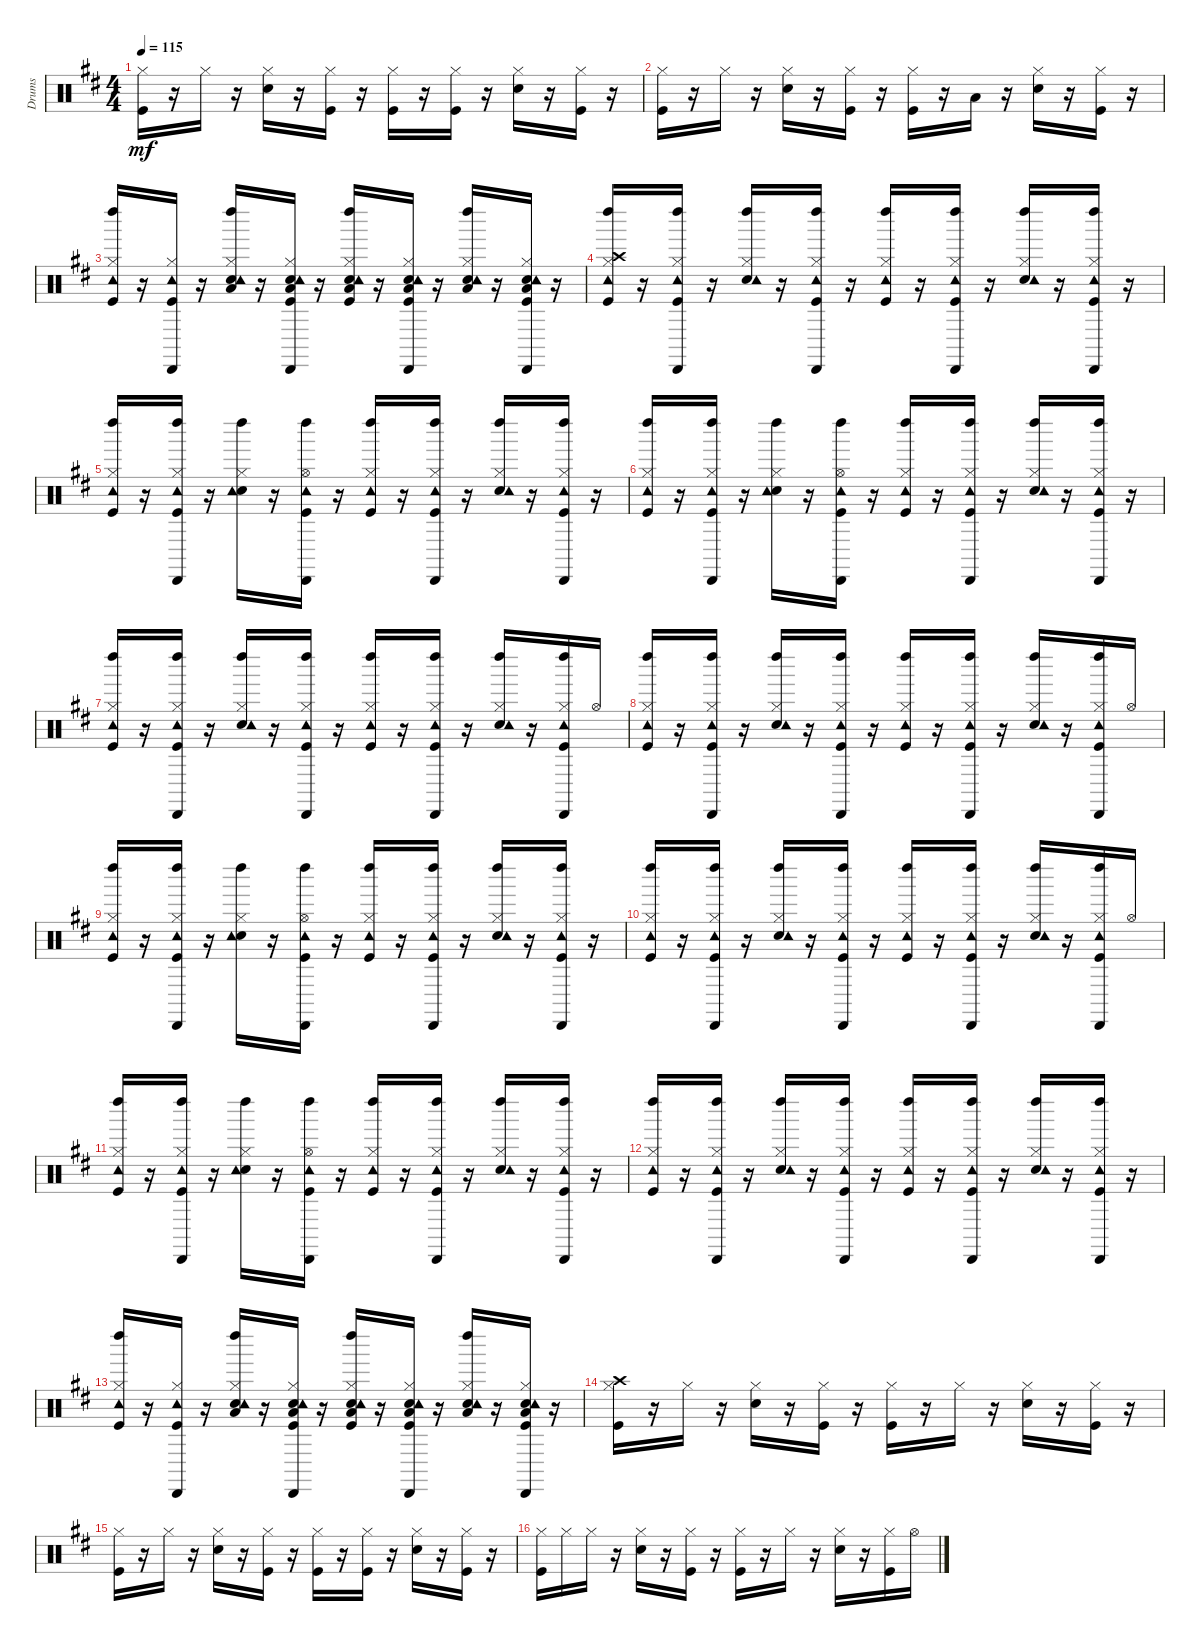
\track ("Drums" "Drums") {instrument percussion}
\staff {score}
\articulation defaults
\ts (4 4)
\tempo 115
\clef neutral
\ks bminor
("Kick (hit)" "Hi-Hat (closed)").16{dy mf} r.16 "Hi-Hat (closed)".16 r.16 ("Snare (hit) 2" "Hi-Hat (closed)").16 r.16 ("Kick (hit)" "Hi-Hat (closed)").16 r.16 ("Kick (hit)" "Hi-Hat (closed)").16 r.16 ("Kick (hit)" "Hi-Hat (closed)").16 r.16 ("Snare (hit) 2" "Hi-Hat (closed)").16 r.16 ("Kick (hit)" "Hi-Hat (closed)").16 r.16 |
("Kick (hit)" "Hi-Hat (closed)").16 r.16 "Hi-Hat (closed)".16 r.16 ("Snare (hit) 2" "Hi-Hat (closed)").16 r.16 ("Kick (hit)" "Hi-Hat (closed)").16 r.16 ("Kick (hit)" "Hi-Hat (closed)").16 r.16 "Low Floor Tom (hit)".16 r.16 ("Snare (hit) 2" "Hi-Hat (closed)").16 r.16 ("Kick (hit)" "Hi-Hat (closed)").16 r.16 |
("Kick (hit)" "Hi-Hat (closed)" "Tambourine (hit)" "Left Maraca (hit)").16 r.16 ("Kick (hit)" "Hi-Hat (closed)" "Tambourine (hit)" "Cabasa (hit)").16 r.16 ("Snare (hit) 2" "Low Floor Tom (hit)" "Hi-Hat (closed)" "Tambourine (hit)" "Left Maraca (hit)").16 r.16 ("Kick (hit)" "Snare (hit) 2" "Low Floor Tom (hit)" "Hi-Hat (closed)" "Tambourine (hit)" "Cabasa (hit)").16 r.16 ("Kick (hit)" "Snare (hit) 2" "Low Floor Tom (hit)" "Hi-Hat (closed)" "Tambourine (hit)" "Left Maraca (hit)").16 r.16 ("Kick (hit)" "Snare (hit) 2" "Low Floor Tom (hit)" "Hi-Hat (closed)" "Tambourine (hit)" "Cabasa (hit)").16 r.16 ("Snare (hit) 2" "Low Floor Tom (hit)" "Hi-Hat (closed)" "Tambourine (hit)" "Left Maraca (hit)").16 r.16 ("Kick (hit)" "Snare (hit) 2" "Low Floor Tom (hit)" "Hi-Hat (closed)" "Tambourine (hit)" "Cabasa (hit)").16 r.16 |
("Kick (hit)" "Hi-Hat (closed)" "Crash high (hit)" "Tambourine (hit)" "Left Maraca (hit)").16 r.16 ("Kick (hit)" "Hi-Hat (closed)" "Tambourine (hit)" "Cabasa (hit)" "Left Maraca (hit)").16 r.16 ("Snare (hit) 2" "Hi-Hat (closed)" "Tambourine (hit)" "Left Maraca (hit)").16 r.16 ("Kick (hit)" "Hi-Hat (closed)" "Tambourine (hit)" "Cabasa (hit)" "Left Maraca (hit)").16 r.16 ("Kick (hit)" "Hi-Hat (closed)" "Tambourine (hit)" "Left Maraca (hit)").16 r.16 ("Kick (hit)" "Hi-Hat (closed)" "Tambourine (hit)" "Cabasa (hit)" "Left Maraca (hit)").16 r.16 ("Snare (hit) 2" "Hi-Hat (closed)" "Tambourine (hit)" "Left Maraca (hit)").16 r.16 ("Kick (hit)" "Hi-Hat (closed)" "Tambourine (hit)" "Cabasa (hit)" "Left Maraca (hit)").16 r.16 |
("Kick (hit)" "Hi-Hat (closed)" "Tambourine (hit)" "Left Maraca (hit)").16 r.16 ("Kick (hit)" "Hi-Hat (closed)" "Tambourine (hit)" "Cabasa (hit)" "Left Maraca (hit)").16 r.16 ("Snare (hit) 2" "Hi-Hat (closed)" "Tambourine (hit)" "Left Maraca (hit)").16 r.16 ("Kick (hit)" "Hi-Hat (open)" "Tambourine (hit)" "Cabasa (hit)" "Left Maraca (hit)").16 r.16 ("Kick (hit)" "Hi-Hat (closed)" "Tambourine (hit)" "Left Maraca (hit)").16 r.16 ("Kick (hit)" "Hi-Hat (closed)" "Tambourine (hit)" "Cabasa (hit)" "Left Maraca (hit)").16 r.16 ("Snare (hit) 2" "Hi-Hat (closed)" "Tambourine (hit)" "Left Maraca (hit)").16 r.16 ("Kick (hit)" "Hi-Hat (closed)" "Tambourine (hit)" "Cabasa (hit)" "Left Maraca (hit)").16 r.16 |
("Kick (hit)" "Hi-Hat (closed)" "Tambourine (hit)" "Left Maraca (hit)").16 r.16 ("Kick (hit)" "Hi-Hat (closed)" "Tambourine (hit)" "Cabasa (hit)" "Left Maraca (hit)").16 r.16 ("Snare (hit) 2" "Hi-Hat (closed)" "Tambourine (hit)" "Left Maraca (hit)").16 r.16 ("Kick (hit)" "Hi-Hat (open)" "Tambourine (hit)" "Cabasa (hit)" "Left Maraca (hit)").16 r.16 ("Kick (hit)" "Hi-Hat (closed)" "Tambourine (hit)" "Left Maraca (hit)").16 r.16 ("Kick (hit)" "Hi-Hat (closed)" "Tambourine (hit)" "Cabasa (hit)" "Left Maraca (hit)").16 r.16 ("Snare (hit) 2" "Hi-Hat (closed)" "Tambourine (hit)" "Left Maraca (hit)").16 r.16 ("Kick (hit)" "Hi-Hat (closed)" "Tambourine (hit)" "Cabasa (hit)" "Left Maraca (hit)").16 r.16 |
("Kick (hit)" "Hi-Hat (closed)" "Tambourine (hit)" "Left Maraca (hit)").16 r.16 ("Kick (hit)" "Hi-Hat (closed)" "Tambourine (hit)" "Cabasa (hit)" "Left Maraca (hit)").16 r.16 ("Snare (hit) 2" "Hi-Hat (closed)" "Tambourine (hit)" "Left Maraca (hit)").16 r.16 ("Kick (hit)" "Hi-Hat (closed)" "Tambourine (hit)" "Cabasa (hit)" "Left Maraca (hit)").16 r.16 ("Kick (hit)" "Hi-Hat (closed)" "Tambourine (hit)" "Left Maraca (hit)").16 r.16 ("Kick (hit)" "Hi-Hat (closed)" "Tambourine (hit)" "Cabasa (hit)" "Left Maraca (hit)").16 r.16 ("Snare (hit) 2" "Hi-Hat (closed)" "Tambourine (hit)" "Left Maraca (hit)").16 r.16 ("Kick (hit)" "Hi-Hat (closed)" "Tambourine (hit)" "Cabasa (hit)" "Left Maraca (hit)").16 "Hi-Hat (open)".16 |
("Kick (hit)" "Hi-Hat (closed)" "Tambourine (hit)" "Left Maraca (hit)").16 r.16 ("Kick (hit)" "Hi-Hat (closed)" "Tambourine (hit)" "Cabasa (hit)" "Left Maraca (hit)").16 r.16 ("Snare (hit) 2" "Hi-Hat (closed)" "Tambourine (hit)" "Left Maraca (hit)").16 r.16 ("Kick (hit)" "Hi-Hat (closed)" "Tambourine (hit)" "Cabasa (hit)" "Left Maraca (hit)").16 r.16 ("Kick (hit)" "Hi-Hat (closed)" "Tambourine (hit)" "Left Maraca (hit)").16 r.16 ("Kick (hit)" "Hi-Hat (closed)" "Tambourine (hit)" "Cabasa (hit)" "Left Maraca (hit)").16 r.16 ("Snare (hit) 2" "Hi-Hat (closed)" "Tambourine (hit)" "Left Maraca (hit)").16 r.16 ("Kick (hit)" "Hi-Hat (closed)" "Tambourine (hit)" "Cabasa (hit)" "Left Maraca (hit)").16 "Hi-Hat (open)".16 |
("Kick (hit)" "Hi-Hat (closed)" "Tambourine (hit)" "Left Maraca (hit)").16 r.16 ("Kick (hit)" "Hi-Hat (closed)" "Tambourine (hit)" "Cabasa (hit)" "Left Maraca (hit)").16 r.16 ("Snare (hit) 2" "Hi-Hat (closed)" "Tambourine (hit)" "Left Maraca (hit)").16 r.16 ("Kick (hit)" "Hi-Hat (open)" "Tambourine (hit)" "Cabasa (hit)" "Left Maraca (hit)").16 r.16 ("Kick (hit)" "Hi-Hat (closed)" "Tambourine (hit)" "Left Maraca (hit)").16 r.16 ("Kick (hit)" "Hi-Hat (closed)" "Tambourine (hit)" "Cabasa (hit)" "Left Maraca (hit)").16 r.16 ("Snare (hit) 2" "Hi-Hat (closed)" "Tambourine (hit)" "Left Maraca (hit)").16 r.16 ("Kick (hit)" "Hi-Hat (closed)" "Tambourine (hit)" "Cabasa (hit)" "Left Maraca (hit)").16 r.16 |
("Kick (hit)" "Hi-Hat (closed)" "Tambourine (hit)" "Left Maraca (hit)").16 r.16 ("Kick (hit)" "Hi-Hat (closed)" "Tambourine (hit)" "Cabasa (hit)" "Left Maraca (hit)").16 r.16 ("Snare (hit) 2" "Hi-Hat (closed)" "Tambourine (hit)" "Left Maraca (hit)").16 r.16 ("Kick (hit)" "Hi-Hat (closed)" "Tambourine (hit)" "Cabasa (hit)" "Left Maraca (hit)").16 r.16 ("Kick (hit)" "Hi-Hat (closed)" "Tambourine (hit)" "Left Maraca (hit)").16 r.16 ("Kick (hit)" "Hi-Hat (closed)" "Tambourine (hit)" "Cabasa (hit)" "Left Maraca (hit)").16 r.16 ("Snare (hit) 2" "Hi-Hat (closed)" "Tambourine (hit)" "Left Maraca (hit)").16 r.16 ("Kick (hit)" "Hi-Hat (closed)" "Tambourine (hit)" "Cabasa (hit)" "Left Maraca (hit)").16 "Hi-Hat (open)".16 |
("Kick (hit)" "Hi-Hat (closed)" "Tambourine (hit)" "Left Maraca (hit)").16 r.16 ("Kick (hit)" "Hi-Hat (closed)" "Tambourine (hit)" "Cabasa (hit)" "Left Maraca (hit)").16 r.16 ("Snare (hit) 2" "Hi-Hat (closed)" "Tambourine (hit)" "Left Maraca (hit)").16 r.16 ("Kick (hit)" "Hi-Hat (open)" "Tambourine (hit)" "Cabasa (hit)" "Left Maraca (hit)").16 r.16 ("Kick (hit)" "Hi-Hat (closed)" "Tambourine (hit)" "Left Maraca (hit)").16 r.16 ("Kick (hit)" "Hi-Hat (closed)" "Tambourine (hit)" "Cabasa (hit)" "Left Maraca (hit)").16 r.16 ("Snare (hit) 2" "Hi-Hat (closed)" "Tambourine (hit)" "Left Maraca (hit)").16 r.16 ("Kick (hit)" "Hi-Hat (closed)" "Tambourine (hit)" "Cabasa (hit)" "Left Maraca (hit)").16 r.16 |
("Kick (hit)" "Hi-Hat (closed)" "Tambourine (hit)" "Left Maraca (hit)").16 r.16 ("Kick (hit)" "Hi-Hat (closed)" "Tambourine (hit)" "Cabasa (hit)" "Left Maraca (hit)").16 r.16 ("Snare (hit) 2" "Hi-Hat (closed)" "Tambourine (hit)" "Left Maraca (hit)").16 r.16 ("Kick (hit)" "Hi-Hat (closed)" "Tambourine (hit)" "Cabasa (hit)" "Left Maraca (hit)").16 r.16 ("Kick (hit)" "Hi-Hat (closed)" "Tambourine (hit)" "Left Maraca (hit)").16 r.16 ("Kick (hit)" "Hi-Hat (closed)" "Tambourine (hit)" "Cabasa (hit)" "Left Maraca (hit)").16 r.16 ("Snare (hit) 2" "Hi-Hat (closed)" "Tambourine (hit)" "Left Maraca (hit)").16 r.16 ("Kick (hit)" "Hi-Hat (closed)" "Tambourine (hit)" "Cabasa (hit)" "Left Maraca (hit)").16 r.16 |
("Kick (hit)" "Hi-Hat (closed)" "Tambourine (hit)" "Left Maraca (hit)").16 r.16 ("Kick (hit)" "Hi-Hat (closed)" "Tambourine (hit)" "Cabasa (hit)").16 r.16 ("Snare (hit) 2" "Low Floor Tom (hit)" "Hi-Hat (closed)" "Tambourine (hit)" "Left Maraca (hit)").16 r.16 ("Kick (hit)" "Snare (hit) 2" "Low Floor Tom (hit)" "Hi-Hat (closed)" "Tambourine (hit)" "Cabasa (hit)").16 r.16 ("Kick (hit)" "Snare (hit) 2" "Low Floor Tom (hit)" "Hi-Hat (closed)" "Tambourine (hit)" "Left Maraca (hit)").16 r.16 ("Kick (hit)" "Snare (hit) 2" "Low Floor Tom (hit)" "Hi-Hat (closed)" "Tambourine (hit)" "Cabasa (hit)").16 r.16 ("Snare (hit) 2" "Low Floor Tom (hit)" "Hi-Hat (closed)" "Tambourine (hit)" "Left Maraca (hit)").16 r.16 ("Kick (hit)" "Snare (hit) 2" "Low Floor Tom (hit)" "Hi-Hat (closed)" "Tambourine (hit)" "Cabasa (hit)").16 r.16 |
("Kick (hit)" "Hi-Hat (closed)" "Crash high (hit)").16 r.16 "Hi-Hat (closed)".16 r.16 ("Snare (hit) 2" "Hi-Hat (closed)").16 r.16 ("Kick (hit)" "Hi-Hat (closed)").16 r.16 ("Kick (hit)" "Hi-Hat (closed)").16 r.16 "Hi-Hat (closed)".16 r.16 ("Snare (hit) 2" "Hi-Hat (closed)").16 r.16 ("Kick (hit)" "Hi-Hat (closed)").16 r.16 |
("Kick (hit)" "Hi-Hat (closed)").16 r.16 "Hi-Hat (closed)".16 r.16 ("Snare (hit) 2" "Hi-Hat (closed)").16 r.16 ("Kick (hit)" "Hi-Hat (closed)").16 r.16 ("Kick (hit)" "Hi-Hat (closed)").16 r.16 ("Kick (hit)" "Hi-Hat (closed)").16 r.16 ("Snare (hit) 2" "Hi-Hat (closed)").16 r.16 ("Kick (hit)" "Hi-Hat (closed)").16 r.16 |
("Kick (hit)" "Hi-Hat (closed)").16 "Hi-Hat (closed)".16 "Hi-Hat (closed)".16 r.16 ("Snare (hit) 2" "Hi-Hat (closed)").16 r.16 ("Kick (hit)" "Hi-Hat (closed)").16 r.16 ("Kick (hit)" "Hi-Hat (closed)").16 r.16 "Hi-Hat (closed)".16 r.16 ("Snare (hit) 2" "Hi-Hat (closed)").16 r.16 ("Kick (hit)" "Hi-Hat (closed)").16 "Hi-Hat (open)".16
